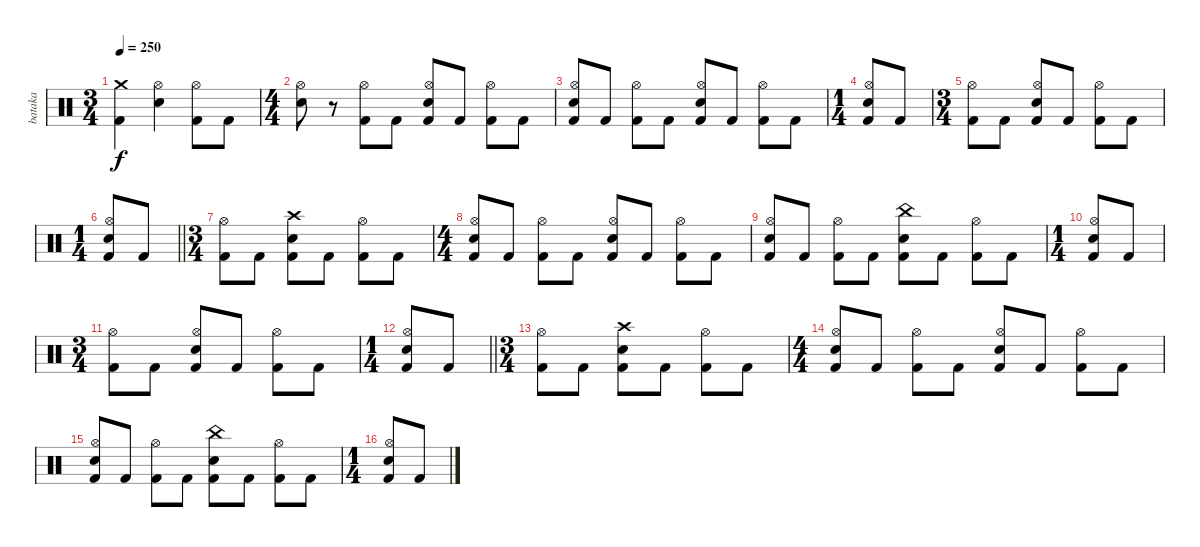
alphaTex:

\track ("bataka" "bataka") {instrument percussion}
\staff {score}
\articulation defaults
\ts (3 4)
\tempo 250
\clef neutral
\ks c
("Crash medium (hit)" "Kick (hit) 2").4{dy f} ("Hi-Hat (open)" "Electric Snare (hit)").4 ("Hi-Hat (open)" "Kick (hit) 2").8 "Kick (hit) 2".8 |
\ts (4 4)
("Hi-Hat (open)" "Electric Snare (hit)").8 r.8 ("Hi-Hat (open)" "Kick (hit) 2").8 "Kick (hit) 2".8 ("Hi-Hat (open)" "Electric Snare (hit)" "Kick (hit) 2").8 "Kick (hit) 2".8 ("Hi-Hat (open)" "Kick (hit) 2").8 "Kick (hit) 2".8 |
("Hi-Hat (open)" "Electric Snare (hit)" "Kick (hit) 2").8 "Kick (hit) 2".8 ("Hi-Hat (open)" "Kick (hit) 2").8 "Kick (hit) 2".8 ("Hi-Hat (open)" "Electric Snare (hit)" "Kick (hit) 2").8 "Kick (hit) 2".8 ("Hi-Hat (open)" "Kick (hit) 2").8 "Kick (hit) 2".8 |
\ts (1 4)
("Hi-Hat (open)" "Electric Snare (hit)" "Kick (hit) 2").8 "Kick (hit) 2".8 |
\ts (3 4)
("Hi-Hat (open)" "Kick (hit) 2").8 "Kick (hit) 2".8 ("Hi-Hat (open)" "Electric Snare (hit)" "Kick (hit) 2").8 "Kick (hit) 2".8 ("Hi-Hat (open)" "Kick (hit) 2").8 "Kick (hit) 2".8 |
\ts (1 4)
\barLineRight lightlight
("Hi-Hat (open)" "Electric Snare (hit)" "Kick (hit) 2").8 "Kick (hit) 2".8 |
\ts (3 4)
("Hi-Hat (open)" "Kick (hit) 2").8 "Kick (hit) 2".8 ("Crash high (hit)" "Electric Snare (hit)" "Kick (hit) 2").8 "Kick (hit) 2".8 ("Hi-Hat (open)" "Kick (hit) 2").8 "Kick (hit) 2".8 |
\ts (4 4)
("Hi-Hat (open)" "Electric Snare (hit)" "Kick (hit) 2").8 "Kick (hit) 2".8 ("Hi-Hat (open)" "Kick (hit) 2").8 "Kick (hit) 2".8 ("Hi-Hat (open)" "Electric Snare (hit)" "Kick (hit) 2").8 "Kick (hit) 2".8 ("Hi-Hat (open)" "Kick (hit) 2").8 "Kick (hit) 2".8 |
("Hi-Hat (open)" "Electric Snare (hit)" "Kick (hit) 2").8 "Kick (hit) 2".8 ("Hi-Hat (open)" "Kick (hit) 2").8 "Kick (hit) 2".8 ("China (hit)" "Electric Snare (hit)" "Kick (hit) 2").8 "Kick (hit) 2".8 ("Hi-Hat (open)" "Kick (hit) 2").8 "Kick (hit) 2".8 |
\ts (1 4)
("Hi-Hat (open)" "Electric Snare (hit)" "Kick (hit) 2").8 "Kick (hit) 2".8 |
\ts (3 4)
("Hi-Hat (open)" "Kick (hit) 2").8 "Kick (hit) 2".8 ("Hi-Hat (open)" "Electric Snare (hit)" "Kick (hit) 2").8 "Kick (hit) 2".8 ("Hi-Hat (open)" "Kick (hit) 2").8 "Kick (hit) 2".8 |
\ts (1 4)
\barLineRight lightlight
("Hi-Hat (open)" "Electric Snare (hit)" "Kick (hit) 2").8 "Kick (hit) 2".8 |
\ts (3 4)
("Hi-Hat (open)" "Kick (hit) 2").8 "Kick (hit) 2".8 ("Crash high (hit)" "Electric Snare (hit)" "Kick (hit) 2").8 "Kick (hit) 2".8 ("Hi-Hat (open)" "Kick (hit) 2").8 "Kick (hit) 2".8 |
\ts (4 4)
("Hi-Hat (open)" "Electric Snare (hit)" "Kick (hit) 2").8 "Kick (hit) 2".8 ("Hi-Hat (open)" "Kick (hit) 2").8 "Kick (hit) 2".8 ("Hi-Hat (open)" "Electric Snare (hit)" "Kick (hit) 2").8 "Kick (hit) 2".8 ("Hi-Hat (open)" "Kick (hit) 2").8 "Kick (hit) 2".8 |
("Hi-Hat (open)" "Electric Snare (hit)" "Kick (hit) 2").8 "Kick (hit) 2".8 ("Hi-Hat (open)" "Kick (hit) 2").8 "Kick (hit) 2".8 ("China (hit)" "Electric Snare (hit)" "Kick (hit) 2").8 "Kick (hit) 2".8 ("Hi-Hat (open)" "Kick (hit) 2").8 "Kick (hit) 2".8 |
\ts (1 4)
("Hi-Hat (open)" "Electric Snare (hit)" "Kick (hit) 2").8 "Kick (hit) 2".8
